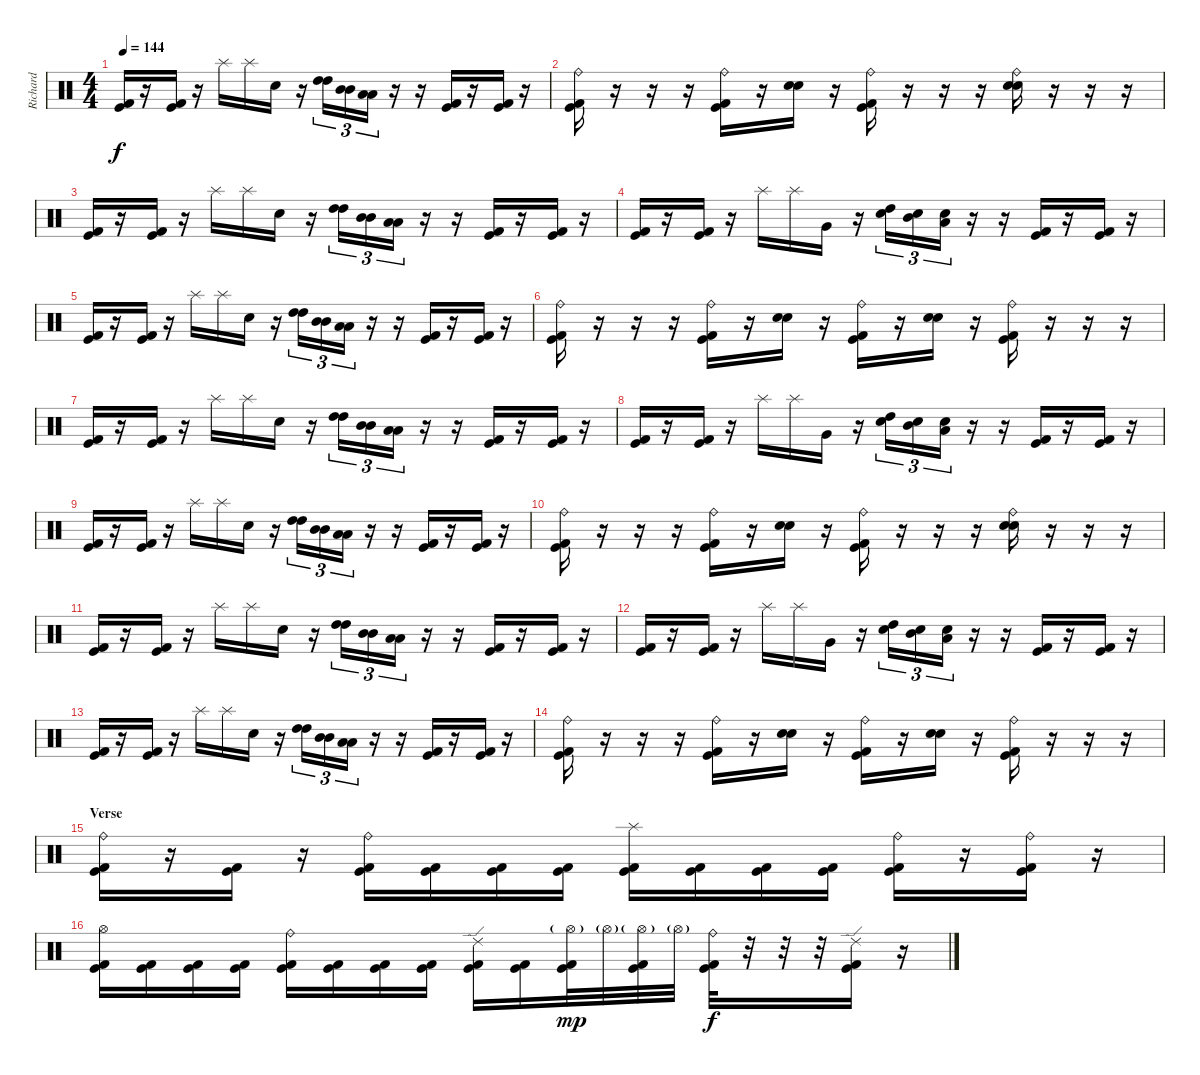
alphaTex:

\track ("Richard" "Richard") {instrument percussion}
\staff {score}
\articulation defaults
\ts (4 4)
\tempo 144
\clef neutral
\ks c
("Kick (hit) 2" "Kick (hit)").16{dy f} r.16 ("Kick (hit) 2" "Kick (hit)").16 r.16 "Splash (hit)".16 "Splash (hit)".16 "Snare (hit) 2".16 r.16 ("High Tom (hit)" "High Tom (hit)").16{tu (3 2)} ("Mid Tom (hit)" "Mid Tom (hit)").16{tu (3 2)} ("Low Tom (hit)" "Low Tom (hit)").16{tu (3 2)} r.16 r.16 ("Kick (hit) 2" "Kick (hit)").16 r.16 ("Kick (hit) 2" "Kick (hit)").16 r.16 |
("Ride (bell)" "Kick (hit)" "Kick (hit) 2").16 r.16 r.16 r.16 ("Ride (bell)" "Kick (hit)" "Kick (hit) 2").16 r.16 ("Snare (hit) 2" "Electric Snare (hit)").16 r.16 ("Ride (bell)" "Kick (hit)" "Kick (hit) 2").16 r.16 r.16 r.16 ("Ride (bell)" "Snare (hit) 2" "Electric Snare (hit)").16 r.16 r.16 r.16 |
("Kick (hit) 2" "Kick (hit)").16 r.16 ("Kick (hit) 2" "Kick (hit)").16 r.16 "Splash (hit)".16 "Splash (hit)".16 "Snare (hit) 2".16 r.16 ("High Tom (hit)" "High Tom (hit)").16{tu (3 2)} ("Mid Tom (hit)" "Mid Tom (hit)").16{tu (3 2)} ("Low Tom (hit)" "Low Tom (hit)").16{tu (3 2)} r.16 r.16 ("Kick (hit) 2" "Kick (hit)").16 r.16 ("Kick (hit) 2" "Kick (hit)").16 r.16 |
("Kick (hit) 2" "Kick (hit)").16 r.16 ("Kick (hit) 2" "Kick (hit)").16 r.16 "Splash (hit)".16 "Splash (hit)".16 "Very Low Tom (hit)".16 r.16 ("Snare (hit) 2" "High Tom (hit)").16{tu (3 2)} ("Snare (hit) 2" "Mid Tom (hit)").16{tu (3 2)} ("Snare (hit) 2" "Low Tom (hit)").16{tu (3 2)} r.16 r.16 ("Kick (hit)" "Kick (hit) 2").16 r.16 ("Kick (hit)" "Kick (hit) 2").16 r.16 |
("Kick (hit) 2" "Kick (hit)").16 r.16 ("Kick (hit) 2" "Kick (hit)").16 r.16 "Splash (hit)".16 "Splash (hit)".16 "Snare (hit) 2".16 r.16 ("High Tom (hit)" "High Tom (hit)").16{tu (3 2)} ("Mid Tom (hit)" "Mid Tom (hit)").16{tu (3 2)} ("Low Tom (hit)" "Low Tom (hit)").16{tu (3 2)} r.16 r.16 ("Kick (hit) 2" "Kick (hit)").16 r.16 ("Kick (hit) 2" "Kick (hit)").16 r.16 |
("Ride (bell)" "Kick (hit)" "Kick (hit) 2").16 r.16 r.16 r.16 ("Ride (bell)" "Kick (hit)" "Kick (hit) 2").16 r.16 ("Snare (hit) 2" "Electric Snare (hit)").16 r.16 ("Ride (bell)" "Kick (hit)" "Kick (hit) 2").16 r.16 ("Snare (hit) 2" "Electric Snare (hit)").16 r.16 ("Ride (bell)" "Kick (hit)" "Kick (hit) 2").16 r.16 r.16 r.16 |
("Kick (hit) 2" "Kick (hit)").16 r.16 ("Kick (hit) 2" "Kick (hit)").16 r.16 "Splash (hit)".16 "Splash (hit)".16 "Snare (hit) 2".16 r.16 ("High Tom (hit)" "High Tom (hit)").16{tu (3 2)} ("Mid Tom (hit)" "Mid Tom (hit)").16{tu (3 2)} ("Low Tom (hit)" "Low Tom (hit)").16{tu (3 2)} r.16 r.16 ("Kick (hit) 2" "Kick (hit)").16 r.16 ("Kick (hit) 2" "Kick (hit)").16 r.16 |
("Kick (hit) 2" "Kick (hit)").16 r.16 ("Kick (hit) 2" "Kick (hit)").16 r.16 "Splash (hit)".16 "Splash (hit)".16 "Very Low Tom (hit)".16 r.16 ("Snare (hit) 2" "High Tom (hit)").16{tu (3 2)} ("Snare (hit) 2" "Mid Tom (hit)").16{tu (3 2)} ("Snare (hit) 2" "Low Tom (hit)").16{tu (3 2)} r.16 r.16 ("Kick (hit)" "Kick (hit) 2").16 r.16 ("Kick (hit)" "Kick (hit) 2").16 r.16 |
("Kick (hit) 2" "Kick (hit)").16 r.16 ("Kick (hit) 2" "Kick (hit)").16 r.16 "Splash (hit)".16 "Splash (hit)".16 "Snare (hit) 2".16 r.16 ("High Tom (hit)" "High Tom (hit)").16{tu (3 2)} ("Mid Tom (hit)" "Mid Tom (hit)").16{tu (3 2)} ("Low Tom (hit)" "Low Tom (hit)").16{tu (3 2)} r.16 r.16 ("Kick (hit) 2" "Kick (hit)").16 r.16 ("Kick (hit) 2" "Kick (hit)").16 r.16 |
("Ride (bell)" "Kick (hit)" "Kick (hit) 2").16 r.16 r.16 r.16 ("Ride (bell)" "Kick (hit)" "Kick (hit) 2").16 r.16 ("Snare (hit) 2" "Electric Snare (hit)").16 r.16 ("Ride (bell)" "Kick (hit)" "Kick (hit) 2").16 r.16 r.16 r.16 ("Ride (bell)" "Snare (hit) 2" "Electric Snare (hit)").16 r.16 r.16 r.16 |
("Kick (hit) 2" "Kick (hit)").16 r.16 ("Kick (hit) 2" "Kick (hit)").16 r.16 "Splash (hit)".16 "Splash (hit)".16 "Snare (hit) 2".16 r.16 ("High Tom (hit)" "High Tom (hit)").16{tu (3 2)} ("Mid Tom (hit)" "Mid Tom (hit)").16{tu (3 2)} ("Low Tom (hit)" "Low Tom (hit)").16{tu (3 2)} r.16 r.16 ("Kick (hit) 2" "Kick (hit)").16 r.16 ("Kick (hit) 2" "Kick (hit)").16 r.16 |
("Kick (hit) 2" "Kick (hit)").16 r.16 ("Kick (hit) 2" "Kick (hit)").16 r.16 "Splash (hit)".16 "Splash (hit)".16 "Very Low Tom (hit)".16 r.16 ("Snare (hit) 2" "High Tom (hit)").16{tu (3 2)} ("Snare (hit) 2" "Mid Tom (hit)").16{tu (3 2)} ("Snare (hit) 2" "Low Tom (hit)").16{tu (3 2)} r.16 r.16 ("Kick (hit)" "Kick (hit) 2").16 r.16 ("Kick (hit)" "Kick (hit) 2").16 r.16 |
("Kick (hit) 2" "Kick (hit)").16 r.16 ("Kick (hit) 2" "Kick (hit)").16 r.16 "Splash (hit)".16 "Splash (hit)".16 "Snare (hit) 2".16 r.16 ("High Tom (hit)" "High Tom (hit)").16{tu (3 2)} ("Mid Tom (hit)" "Mid Tom (hit)").16{tu (3 2)} ("Low Tom (hit)" "Low Tom (hit)").16{tu (3 2)} r.16 r.16 ("Kick (hit) 2" "Kick (hit)").16 r.16 ("Kick (hit) 2" "Kick (hit)").16 r.16 |
("Ride (bell)" "Kick (hit)" "Kick (hit) 2").16 r.16 r.16 r.16 ("Ride (bell)" "Kick (hit)" "Kick (hit) 2").16 r.16 ("Snare (hit) 2" "Electric Snare (hit)").16 r.16 ("Ride (bell)" "Kick (hit)" "Kick (hit) 2").16 r.16 ("Snare (hit) 2" "Electric Snare (hit)").16 r.16 ("Ride (bell)" "Kick (hit)" "Kick (hit) 2").16 r.16 r.16 r.16 |
\section ("" "Verse")
("Ride (bell)" "Kick (hit)" "Kick (hit) 2").16 r.16 ("Kick (hit)" "Kick (hit) 2").16 r.16 ("Ride (bell)" "Kick (hit)" "Kick (hit) 2").16 ("Kick (hit)" "Kick (hit) 2").16 ("Kick (hit)" "Kick (hit) 2").16 ("Kick (hit)" "Kick (hit) 2").16 ("Splash (hit)" "Kick (hit)" "Kick (hit) 2").16 ("Kick (hit)" "Kick (hit) 2").16 ("Kick (hit)" "Kick (hit) 2").16 ("Kick (hit)" "Kick (hit) 2").16 ("Ride (bell)" "Kick (hit)" "Kick (hit) 2").16 r.16 ("Ride (bell)" "Kick (hit)" "Kick (hit) 2").16 r.16 |
("Hi-Hat (open)" "Kick (hit)" "Kick (hit) 2").16 ("Kick (hit)" "Kick (hit) 2").16 ("Kick (hit)" "Kick (hit) 2").16 ("Kick (hit)" "Kick (hit) 2").16 ("Ride (bell)" "Kick (hit)" "Kick (hit) 2").16 ("Kick (hit)" "Kick (hit) 2").16 ("Kick (hit)" "Kick (hit) 2").16 ("Kick (hit)" "Kick (hit) 2").16 ("Ride (edge) 2" "Kick (hit)" "Kick (hit) 2").16 ("Kick (hit)" "Kick (hit) 2").16 ("Hi-Hat (open)"{g} "Kick (hit)" "Kick (hit) 2").32{dy mp} "Hi-Hat (open)"{g}.32 ("Hi-Hat (open)"{g} "Kick (hit)" "Kick (hit) 2").32 "Hi-Hat (open)"{g}.32 ("Ride (bell)" "Kick (hit)" "Kick (hit) 2").32{dy f} r.32 r.32 r.32 ("Ride (edge) 2" "Kick (hit)" "Kick (hit) 2").16 r.16
